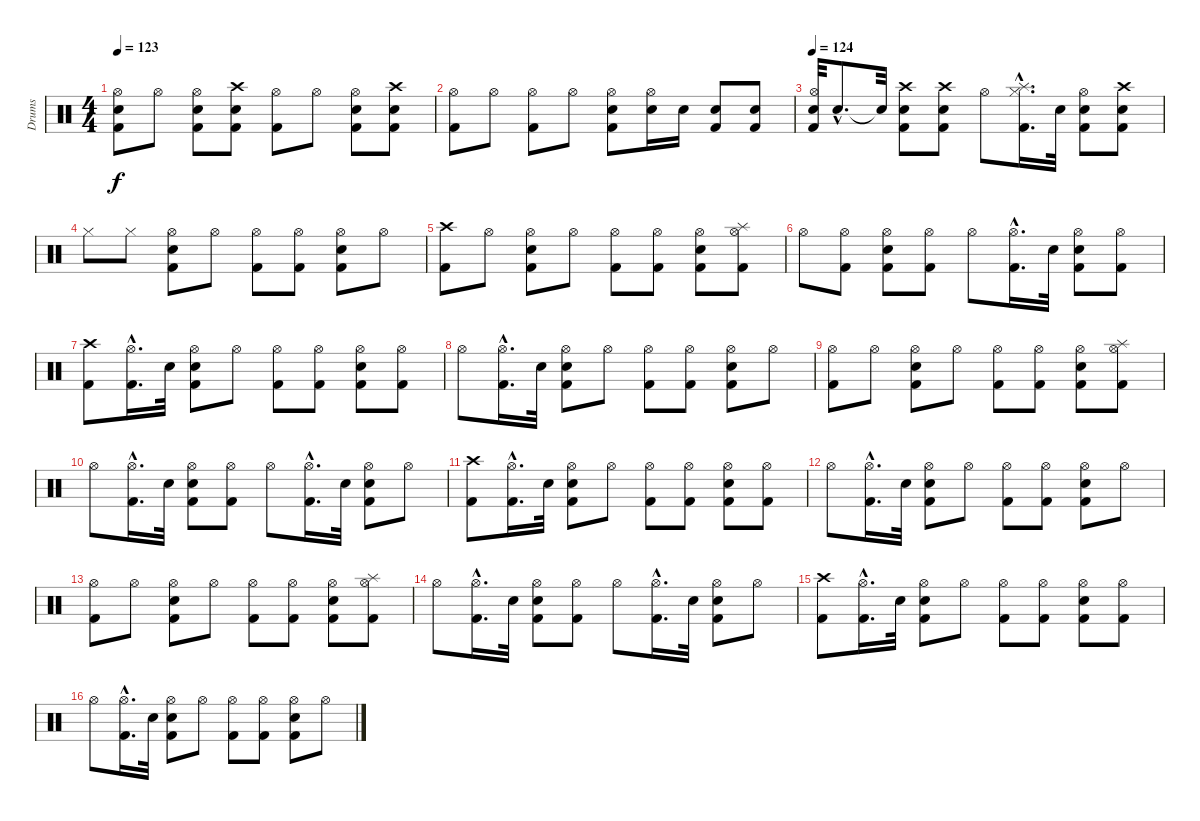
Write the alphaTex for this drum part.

\track ("Drums" "Drums") {instrument percussion}
\staff {score}
\articulation defaults
\ts (4 4)
\tempo 123
\clef neutral
\ks c
("Kick (hit) 2" "Hi-Hat (open)" "Snare (hit) 2").8{dy f} "Hi-Hat (open)".8 ("Snare (hit) 2" "Kick (hit) 2" "Hi-Hat (open)").8 ("Snare (hit) 2" "Crash high (hit)" "Kick (hit) 2").8 ("Hi-Hat (open)" "Kick (hit) 2").8 "Hi-Hat (open)".8 ("Hi-Hat (open)" "Kick (hit) 2" "Snare (hit) 2").8 ("Kick (hit) 2" "Crash high (hit)" "Snare (hit) 2").8 |
("Hi-Hat (open)" "Kick (hit) 2").8 "Hi-Hat (open)".8 ("Hi-Hat (open)" "Kick (hit) 2").8 "Hi-Hat (open)".8 ("Snare (hit) 2" "Kick (hit) 2" "Hi-Hat (open)").8 ("Hi-Hat (open)" "Snare (hit) 2").16 "Snare (hit) 2".16 ("Snare (hit) 2" "Kick (hit) 2").8 ("Kick (hit) 2" "Snare (hit) 2").8 |
\tempo 124
("Snare (hit) 2" "Kick (hit) 2" "Hi-Hat (open)").32 "Snare (hit) 2"{hac}.8{d} "Snare (hit)"{t}.32 ("Kick (hit) 2" "Crash high (hit)" "Snare (hit) 2").8 ("Kick (hit) 2" "Snare (hit) 2" "Crash high (hit)").8 "Hi-Hat (open)".8 ("Kick (hit) 2"{hac} "Splash (hit)" "Hi-Hat (closed)").16{d} "Snare (hit) 2".32 ("Kick (hit) 2" "Snare (hit) 2" "Hi-Hat (open)").8 ("Crash high (hit)" "Kick (hit) 2" "Snare (hit) 2").8 |
"Hi-Hat (closed)".8 "Hi-Hat (closed)".8 ("Kick (hit) 2" "Snare (hit) 2" "Hi-Hat (open)").8 "Hi-Hat (open)".8 ("Kick (hit) 2" "Hi-Hat (open)").8 ("Kick (hit) 2" "Hi-Hat (open)").8 ("Hi-Hat (open)" "Kick (hit) 2" "Snare (hit) 2").8 "Hi-Hat (open)".8 |
("Kick (hit) 2" "Crash high (hit)").8 "Hi-Hat (open)".8 ("Kick (hit) 2" "Hi-Hat (open)" "Snare (hit) 2").8 "Hi-Hat (open)".8 ("Kick (hit) 2" "Hi-Hat (open)").8 ("Kick (hit) 2" "Hi-Hat (open)").8 ("Kick (hit) 2" "Hi-Hat (open)" "Snare (hit) 2").8 ("Hi-Hat (open)" "Kick (hit) 2" "Splash (hit)").8 |
"Hi-Hat (open)".8 ("Hi-Hat (open)" "Kick (hit) 2").8 ("Kick (hit) 2" "Hi-Hat (open)" "Snare (hit) 2").8 ("Kick (hit) 2" "Hi-Hat (open)").8 "Hi-Hat (open)".8 ("Hi-Hat (open)" "Kick (hit) 2"{hac}).16{d} "Snare (hit) 2".32 ("Kick (hit) 2" "Hi-Hat (open)" "Snare (hit) 2").8 ("Kick (hit) 2" "Hi-Hat (open)").8 |
("Kick (hit) 2" "Crash high (hit)").8 ("Hi-Hat (open)"{hac} "Kick (hit) 2").16{d} "Snare (hit) 2".32 ("Hi-Hat (open)" "Snare (hit) 2" "Kick (hit) 2").8 "Hi-Hat (open)".8 ("Kick (hit) 2" "Hi-Hat (open)").8 ("Hi-Hat (open)" "Kick (hit) 2").8 ("Snare (hit) 2" "Kick (hit) 2" "Hi-Hat (open)").8 ("Kick (hit) 2" "Hi-Hat (open)").8 |
"Hi-Hat (open)".8 ("Kick (hit) 2"{hac} "Hi-Hat (open)").16{d} "Snare (hit) 2".32 ("Hi-Hat (open)" "Snare (hit) 2" "Kick (hit) 2").8 "Hi-Hat (open)".8 ("Kick (hit) 2" "Hi-Hat (open)").8 ("Hi-Hat (open)" "Kick (hit) 2").8 ("Kick (hit) 2" "Snare (hit) 2" "Hi-Hat (open)").8 "Hi-Hat (open)".8 |
("Hi-Hat (open)" "Kick (hit) 2").8 "Hi-Hat (open)".8 ("Snare (hit) 2" "Hi-Hat (open)" "Kick (hit) 2").8 "Hi-Hat (open)".8 ("Kick (hit) 2" "Hi-Hat (open)").8 ("Kick (hit) 2" "Hi-Hat (open)").8 ("Kick (hit) 2" "Hi-Hat (open)" "Snare (hit) 2").8 ("Hi-Hat (open)" "Kick (hit) 2" "Splash (hit)").8 |
"Hi-Hat (open)".8 ("Kick (hit) 2"{hac} "Hi-Hat (open)").16{d} "Snare (hit) 2".32 ("Hi-Hat (open)" "Kick (hit) 2" "Snare (hit) 2").8 ("Kick (hit) 2" "Hi-Hat (open)").8 "Hi-Hat (open)".8 ("Kick (hit) 2"{hac} "Hi-Hat (open)").16{d} "Snare (hit) 2".32 ("Hi-Hat (open)" "Snare (hit) 2" "Kick (hit) 2").8 "Hi-Hat (open)".8 |
("Kick (hit) 2" "Crash high (hit)").8 ("Hi-Hat (open)"{hac} "Kick (hit) 2").16{d} "Snare (hit) 2".32 ("Hi-Hat (open)" "Snare (hit) 2" "Kick (hit) 2").8 "Hi-Hat (open)".8 ("Kick (hit) 2" "Hi-Hat (open)").8 ("Hi-Hat (open)" "Kick (hit) 2").8 ("Snare (hit) 2" "Kick (hit) 2" "Hi-Hat (open)").8 ("Kick (hit) 2" "Hi-Hat (open)").8 |
"Hi-Hat (open)".8 ("Kick (hit) 2"{hac} "Hi-Hat (open)").16{d} "Snare (hit) 2".32 ("Hi-Hat (open)" "Snare (hit) 2" "Kick (hit) 2").8 "Hi-Hat (open)".8 ("Kick (hit) 2" "Hi-Hat (open)").8 ("Hi-Hat (open)" "Kick (hit) 2").8 ("Kick (hit) 2" "Snare (hit) 2" "Hi-Hat (open)").8 "Hi-Hat (open)".8 |
("Hi-Hat (open)" "Kick (hit) 2").8 "Hi-Hat (open)".8 ("Snare (hit) 2" "Hi-Hat (open)" "Kick (hit) 2").8 "Hi-Hat (open)".8 ("Kick (hit) 2" "Hi-Hat (open)").8 ("Kick (hit) 2" "Hi-Hat (open)").8 ("Kick (hit) 2" "Hi-Hat (open)" "Snare (hit) 2").8 ("Hi-Hat (open)" "Kick (hit) 2" "Splash (hit)").8 |
"Hi-Hat (open)".8 ("Kick (hit) 2"{hac} "Hi-Hat (open)").16{d} "Snare (hit) 2".32 ("Hi-Hat (open)" "Kick (hit) 2" "Snare (hit) 2").8 ("Kick (hit) 2" "Hi-Hat (open)").8 "Hi-Hat (open)".8 ("Kick (hit) 2"{hac} "Hi-Hat (open)").16{d} "Snare (hit) 2".32 ("Hi-Hat (open)" "Snare (hit) 2" "Kick (hit) 2").8 "Hi-Hat (open)".8 |
("Kick (hit) 2" "Crash high (hit)").8 ("Hi-Hat (open)"{hac} "Kick (hit) 2").16{d} "Snare (hit) 2".32 ("Hi-Hat (open)" "Snare (hit) 2" "Kick (hit) 2").8 "Hi-Hat (open)".8 ("Kick (hit) 2" "Hi-Hat (open)").8 ("Hi-Hat (open)" "Kick (hit) 2").8 ("Snare (hit) 2" "Kick (hit) 2" "Hi-Hat (open)").8 ("Kick (hit) 2" "Hi-Hat (open)").8 |
"Hi-Hat (open)".8 ("Kick (hit) 2"{hac} "Hi-Hat (open)").16{d} "Snare (hit) 2".32 ("Hi-Hat (open)" "Snare (hit) 2" "Kick (hit) 2").8 "Hi-Hat (open)".8 ("Kick (hit) 2" "Hi-Hat (open)").8 ("Hi-Hat (open)" "Kick (hit) 2").8 ("Kick (hit) 2" "Snare (hit) 2" "Hi-Hat (open)").8 "Hi-Hat (open)".8
